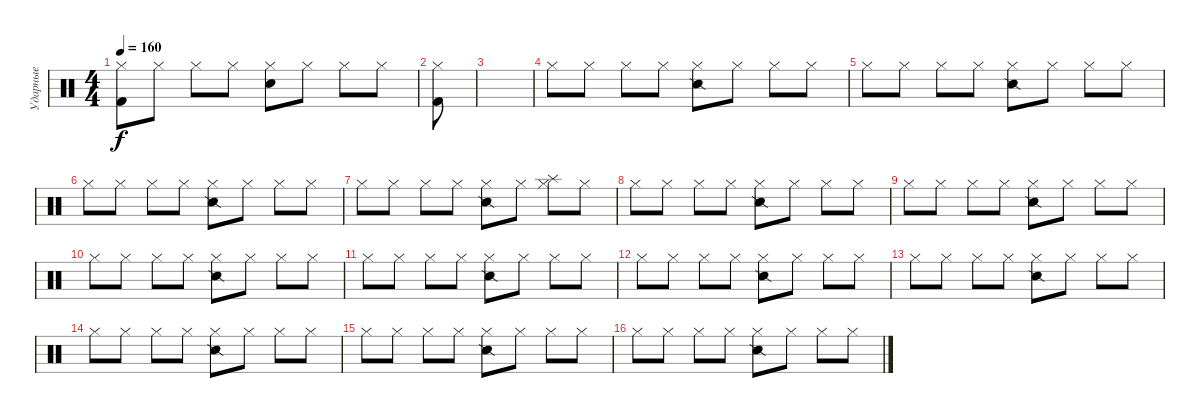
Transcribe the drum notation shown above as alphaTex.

\track ("Ударные" "Ударные") {instrument percussion}
\staff {score}
\articulation defaults
\ts (4 4)
\tempo 160
\clef neutral
\ks c
("Kick (hit) 2" "Hi-Hat (closed)").8{dy f} "Hi-Hat (closed)".8 "Hi-Hat (closed)".8 "Hi-Hat (closed)".8 ("Snare (hit) 2" "Hi-Hat (closed)").8 "Hi-Hat (closed)".8 "Hi-Hat (closed)".8 "Hi-Hat (closed)".8 |
("Kick (hit) 2" "Hi-Hat (closed)").8 |
|
"Hi-Hat (closed)".8 "Hi-Hat (closed)".8 "Hi-Hat (closed)".8 "Hi-Hat (closed)".8 ("Snare (side stick) 2" "Hi-Hat (closed)").8 "Hi-Hat (closed)".8 "Hi-Hat (closed)".8 "Hi-Hat (closed)".8 |
"Hi-Hat (closed)".8 "Hi-Hat (closed)".8 "Hi-Hat (closed)".8 "Hi-Hat (closed)".8 ("Snare (side stick) 2" "Hi-Hat (closed)").8 "Hi-Hat (closed)".8 "Hi-Hat (closed)".8 "Hi-Hat (closed)".8 |
"Hi-Hat (closed)".8 "Hi-Hat (closed)".8 "Hi-Hat (closed)".8 "Hi-Hat (closed)".8 ("Snare (side stick) 2" "Hi-Hat (closed)").8 "Hi-Hat (closed)".8 "Hi-Hat (closed)".8 "Hi-Hat (closed)".8 |
"Hi-Hat (closed)".8 "Hi-Hat (closed)".8 "Hi-Hat (closed)".8 "Hi-Hat (closed)".8 ("Snare (side stick) 2" "Hi-Hat (closed)").8 "Hi-Hat (closed)".8 ("Hi-Hat (closed)" "Splash (hit)").8 "Hi-Hat (closed)".8 |
"Hi-Hat (closed)".8 "Hi-Hat (closed)".8 "Hi-Hat (closed)".8 "Hi-Hat (closed)".8 ("Snare (side stick) 2" "Hi-Hat (closed)").8 "Hi-Hat (closed)".8 "Hi-Hat (closed)".8 "Hi-Hat (closed)".8 |
"Hi-Hat (closed)".8 "Hi-Hat (closed)".8 "Hi-Hat (closed)".8 "Hi-Hat (closed)".8 ("Snare (side stick) 2" "Hi-Hat (closed)").8 "Hi-Hat (closed)".8 "Hi-Hat (closed)".8 "Hi-Hat (closed)".8 |
"Hi-Hat (closed)".8 "Hi-Hat (closed)".8 "Hi-Hat (closed)".8 "Hi-Hat (closed)".8 ("Snare (side stick) 2" "Hi-Hat (closed)").8 "Hi-Hat (closed)".8 "Hi-Hat (closed)".8 "Hi-Hat (closed)".8 |
"Hi-Hat (closed)".8 "Hi-Hat (closed)".8 "Hi-Hat (closed)".8 "Hi-Hat (closed)".8 ("Snare (side stick) 2" "Hi-Hat (closed)").8 "Hi-Hat (closed)".8 "Hi-Hat (closed)".8 "Hi-Hat (closed)".8 |
"Hi-Hat (closed)".8 "Hi-Hat (closed)".8 "Hi-Hat (closed)".8 "Hi-Hat (closed)".8 ("Snare (side stick) 2" "Hi-Hat (closed)").8 "Hi-Hat (closed)".8 "Hi-Hat (closed)".8 "Hi-Hat (closed)".8 |
"Hi-Hat (closed)".8 "Hi-Hat (closed)".8 "Hi-Hat (closed)".8 "Hi-Hat (closed)".8 ("Snare (side stick) 2" "Hi-Hat (closed)").8 "Hi-Hat (closed)".8 "Hi-Hat (closed)".8 "Hi-Hat (closed)".8 |
"Hi-Hat (closed)".8 "Hi-Hat (closed)".8 "Hi-Hat (closed)".8 "Hi-Hat (closed)".8 ("Snare (side stick) 2" "Hi-Hat (closed)").8 "Hi-Hat (closed)".8 "Hi-Hat (closed)".8 "Hi-Hat (closed)".8 |
"Hi-Hat (closed)".8 "Hi-Hat (closed)".8 "Hi-Hat (closed)".8 "Hi-Hat (closed)".8 ("Snare (side stick) 2" "Hi-Hat (closed)").8 "Hi-Hat (closed)".8 "Hi-Hat (closed)".8 "Hi-Hat (closed)".8 |
"Hi-Hat (closed)".8 "Hi-Hat (closed)".8 "Hi-Hat (closed)".8 "Hi-Hat (closed)".8 ("Snare (side stick) 2" "Hi-Hat (closed)").8 "Hi-Hat (closed)".8 "Hi-Hat (closed)".8 "Hi-Hat (closed)".8
